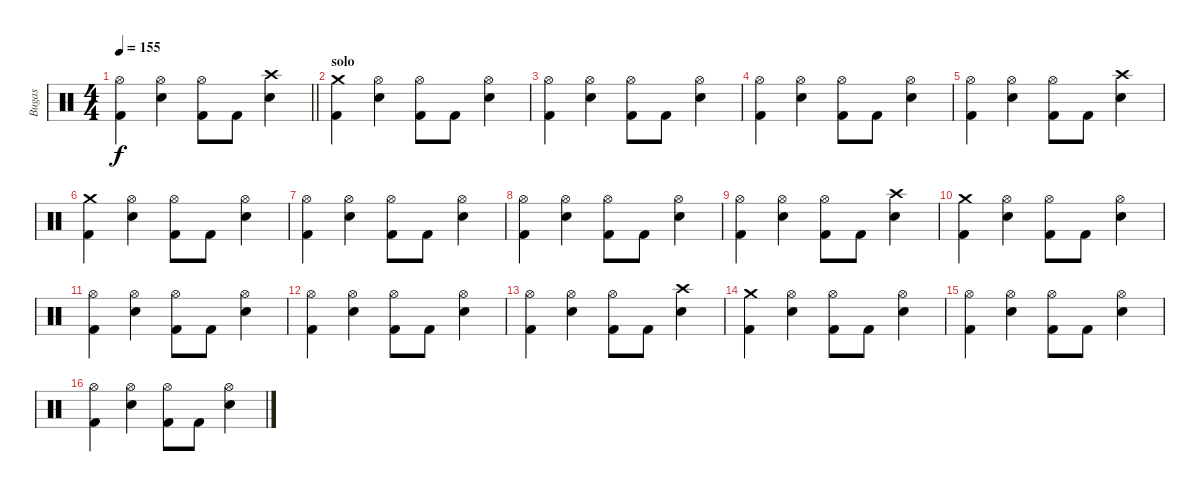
\track ("Bugas" "Bugas") {instrument percussion}
\staff {score}
\articulation defaults
\ts (4 4)
\tempo 155
\clef neutral
\barLineRight lightlight
\ks c
("Hi-Hat (open)" "Kick (hit) 2").4{dy f} ("Hi-Hat (open)" "Electric Snare (hit)").4 ("Hi-Hat (open)" "Kick (hit) 2").8 "Kick (hit) 2".8 ("Crash high (hit)" "Electric Snare (hit)").4 |
\section ("" "solo")
("Crash medium (hit)" "Kick (hit) 2").4 ("Hi-Hat (open)" "Electric Snare (hit)").4 ("Hi-Hat (open)" "Kick (hit) 2").8 "Kick (hit) 2".8 ("Hi-Hat (open)" "Electric Snare (hit)").4 |
("Hi-Hat (open)" "Kick (hit) 2").4 ("Hi-Hat (open)" "Electric Snare (hit)").4 ("Hi-Hat (open)" "Kick (hit) 2").8 "Kick (hit) 2".8 ("Hi-Hat (open)" "Electric Snare (hit)").4 |
("Hi-Hat (open)" "Kick (hit) 2").4 ("Hi-Hat (open)" "Electric Snare (hit)").4 ("Hi-Hat (open)" "Kick (hit) 2").8 "Kick (hit) 2".8 ("Hi-Hat (open)" "Electric Snare (hit)").4 |
("Hi-Hat (open)" "Kick (hit) 2").4 ("Hi-Hat (open)" "Electric Snare (hit)").4 ("Hi-Hat (open)" "Kick (hit) 2").8 "Kick (hit) 2".8 ("Crash high (hit)" "Electric Snare (hit)").4 |
("Crash medium (hit)" "Kick (hit) 2").4 ("Hi-Hat (open)" "Electric Snare (hit)").4 ("Hi-Hat (open)" "Kick (hit) 2").8 "Kick (hit) 2".8 ("Hi-Hat (open)" "Electric Snare (hit)").4 |
("Hi-Hat (open)" "Kick (hit) 2").4 ("Hi-Hat (open)" "Electric Snare (hit)").4 ("Hi-Hat (open)" "Kick (hit) 2").8 "Kick (hit) 2".8 ("Hi-Hat (open)" "Electric Snare (hit)").4 |
("Hi-Hat (open)" "Kick (hit) 2").4 ("Hi-Hat (open)" "Electric Snare (hit)").4 ("Hi-Hat (open)" "Kick (hit) 2").8 "Kick (hit) 2".8 ("Hi-Hat (open)" "Electric Snare (hit)").4 |
("Hi-Hat (open)" "Kick (hit) 2").4 ("Hi-Hat (open)" "Electric Snare (hit)").4 ("Hi-Hat (open)" "Kick (hit) 2").8 "Kick (hit) 2".8 ("Crash high (hit)" "Electric Snare (hit)").4 |
("Crash medium (hit)" "Kick (hit) 2").4 ("Hi-Hat (open)" "Electric Snare (hit)").4 ("Hi-Hat (open)" "Kick (hit) 2").8 "Kick (hit) 2".8 ("Hi-Hat (open)" "Electric Snare (hit)").4 |
("Hi-Hat (open)" "Kick (hit) 2").4 ("Hi-Hat (open)" "Electric Snare (hit)").4 ("Hi-Hat (open)" "Kick (hit) 2").8 "Kick (hit) 2".8 ("Hi-Hat (open)" "Electric Snare (hit)").4 |
("Hi-Hat (open)" "Kick (hit) 2").4 ("Hi-Hat (open)" "Electric Snare (hit)").4 ("Hi-Hat (open)" "Kick (hit) 2").8 "Kick (hit) 2".8 ("Hi-Hat (open)" "Electric Snare (hit)").4 |
("Hi-Hat (open)" "Kick (hit) 2").4 ("Hi-Hat (open)" "Electric Snare (hit)").4 ("Hi-Hat (open)" "Kick (hit) 2").8 "Kick (hit) 2".8 ("Crash high (hit)" "Electric Snare (hit)").4 |
("Crash medium (hit)" "Kick (hit) 2").4 ("Hi-Hat (open)" "Electric Snare (hit)").4 ("Hi-Hat (open)" "Kick (hit) 2").8 "Kick (hit) 2".8 ("Hi-Hat (open)" "Electric Snare (hit)").4 |
("Hi-Hat (open)" "Kick (hit) 2").4 ("Hi-Hat (open)" "Electric Snare (hit)").4 ("Hi-Hat (open)" "Kick (hit) 2").8 "Kick (hit) 2".8 ("Hi-Hat (open)" "Electric Snare (hit)").4 |
("Hi-Hat (open)" "Kick (hit) 2").4 ("Hi-Hat (open)" "Electric Snare (hit)").4 ("Hi-Hat (open)" "Kick (hit) 2").8 "Kick (hit) 2".8 ("Hi-Hat (open)" "Electric Snare (hit)").4
